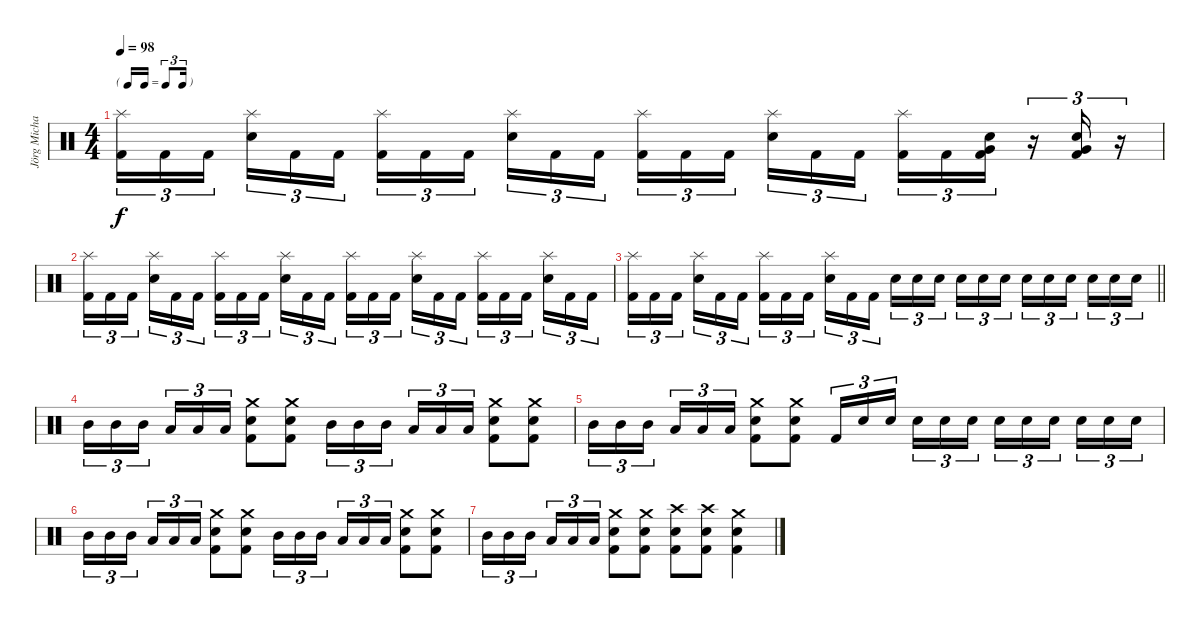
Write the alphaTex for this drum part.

\track ("Jörg Michael" "Jörg Micha") {instrument percussion}
\staff {score}
\articulation defaults
\ts (4 4)
\tf triplet16th
\tempo 98
\clef neutral
\ks c
("Splash (hit)" "Kick (hit) 2").16{tu (3 2) dy f} "Kick (hit) 2".16{tu (3 2)} "Kick (hit) 2".16{tu (3 2) beam splitsecondary} ("Splash (hit)" "Snare (hit) 2").16{tu (3 2)} "Kick (hit) 2".16{tu (3 2)} "Kick (hit) 2".16{tu (3 2)} ("Splash (hit)" "Kick (hit) 2").16{tu (3 2)} "Kick (hit) 2".16{tu (3 2)} "Kick (hit) 2".16{tu (3 2) beam splitsecondary} ("Splash (hit)" "Snare (hit) 2").16{tu (3 2)} "Kick (hit) 2".16{tu (3 2)} "Kick (hit) 2".16{tu (3 2)} ("Splash (hit)" "Kick (hit) 2").16{tu (3 2)} "Kick (hit) 2".16{tu (3 2)} "Kick (hit) 2".16{tu (3 2) beam splitsecondary} ("Splash (hit)" "Snare (hit) 2").16{tu (3 2)} "Kick (hit) 2".16{tu (3 2)} "Kick (hit) 2".16{tu (3 2)} ("Splash (hit)" "Kick (hit) 2").16{tu (3 2)} "Kick (hit) 2".16{tu (3 2)} ("Very Low Tom (hit)" "Snare (hit) 2" "Kick (hit) 2").16{tu (3 2)} r.16{tu (3 2)} ("Very Low Tom (hit)" "Snare (hit) 2" "Kick (hit) 2").16{tu (3 2)} r.16{tu (3 2)} |
("Splash (hit)" "Kick (hit) 2").16{tu (3 2)} "Kick (hit) 2".16{tu (3 2)} "Kick (hit) 2".16{tu (3 2) beam splitsecondary} ("Splash (hit)" "Snare (hit) 2").16{tu (3 2)} "Kick (hit) 2".16{tu (3 2)} "Kick (hit) 2".16{tu (3 2)} ("Splash (hit)" "Kick (hit) 2").16{tu (3 2)} "Kick (hit) 2".16{tu (3 2)} "Kick (hit) 2".16{tu (3 2) beam splitsecondary} ("Splash (hit)" "Snare (hit) 2").16{tu (3 2)} "Kick (hit) 2".16{tu (3 2)} "Kick (hit) 2".16{tu (3 2)} ("Splash (hit)" "Kick (hit) 2").16{tu (3 2)} "Kick (hit) 2".16{tu (3 2)} "Kick (hit) 2".16{tu (3 2) beam splitsecondary} ("Splash (hit)" "Snare (hit) 2").16{tu (3 2)} "Kick (hit) 2".16{tu (3 2)} "Kick (hit) 2".16{tu (3 2)} ("Splash (hit)" "Kick (hit) 2").16{tu (3 2)} "Kick (hit) 2".16{tu (3 2)} "Kick (hit) 2".16{tu (3 2) beam splitsecondary} ("Splash (hit)" "Snare (hit) 2").16{tu (3 2)} "Kick (hit) 2".16{tu (3 2)} "Kick (hit) 2".16{tu (3 2)} |
\barLineRight lightlight
("Splash (hit)" "Kick (hit) 2").16{tu (3 2)} "Kick (hit) 2".16{tu (3 2)} "Kick (hit) 2".16{tu (3 2) beam splitsecondary} ("Splash (hit)" "Snare (hit) 2").16{tu (3 2)} "Kick (hit) 2".16{tu (3 2)} "Kick (hit) 2".16{tu (3 2)} ("Splash (hit)" "Kick (hit) 2").16{tu (3 2)} "Kick (hit) 2".16{tu (3 2)} "Kick (hit) 2".16{tu (3 2) beam splitsecondary} ("Splash (hit)" "Snare (hit) 2").16{tu (3 2)} "Kick (hit) 2".16{tu (3 2)} "Kick (hit) 2".16{tu (3 2)} "Snare (hit) 2".16{tu (3 2)} "Snare (hit) 2".16{tu (3 2)} "Snare (hit) 2".16{tu (3 2) beam splitsecondary} "Snare (hit) 2".16{tu (3 2)} "Snare (hit) 2".16{tu (3 2)} "Snare (hit) 2".16{tu (3 2)} "Snare (hit) 2".16{tu (3 2)} "Snare (hit) 2".16{tu (3 2)} "Snare (hit) 2".16{tu (3 2) beam splitsecondary} "Snare (hit) 2".16{tu (3 2)} "Snare (hit) 2".16{tu (3 2)} "Snare (hit) 2".16{tu (3 2)} |
"Mid Tom (hit)".16{tu (3 2)} "Mid Tom (hit)".16{tu (3 2)} "Mid Tom (hit)".16{tu (3 2) beam splitsecondary} "Low Tom (hit)".16{tu (3 2)} "Low Tom (hit)".16{tu (3 2)} "Low Tom (hit)".16{tu (3 2)} ("Crash medium (hit)" "Snare (hit) 2" "Kick (hit) 2").8 ("Crash medium (hit)" "Snare (hit) 2" "Kick (hit) 2").8 "Mid Tom (hit)".16{tu (3 2)} "Mid Tom (hit)".16{tu (3 2)} "Mid Tom (hit)".16{tu (3 2) beam splitsecondary} "Low Tom (hit)".16{tu (3 2)} "Low Tom (hit)".16{tu (3 2)} "Low Tom (hit)".16{tu (3 2)} ("Crash medium (hit)" "Snare (hit) 2" "Kick (hit) 2").8 ("Crash medium (hit)" "Snare (hit) 2" "Kick (hit) 2").8 |
"Mid Tom (hit)".16{tu (3 2)} "Mid Tom (hit)".16{tu (3 2)} "Mid Tom (hit)".16{tu (3 2) beam splitsecondary} "Low Tom (hit)".16{tu (3 2)} "Low Tom (hit)".16{tu (3 2)} "Low Tom (hit)".16{tu (3 2)} ("Crash medium (hit)" "Snare (hit) 2" "Kick (hit) 2").8 ("Crash medium (hit)" "Snare (hit) 2" "Kick (hit) 2").8 "Kick (hit) 2".16{tu (3 2)} "Snare (hit) 2".16{tu (3 2)} "Snare (hit) 2".16{tu (3 2) beam splitsecondary} "Snare (hit) 2".16{tu (3 2)} "Snare (hit) 2".16{tu (3 2)} "Snare (hit) 2".16{tu (3 2)} "Snare (hit) 2".16{tu (3 2)} "Snare (hit) 2".16{tu (3 2)} "Snare (hit) 2".16{tu (3 2) beam splitsecondary} "Snare (hit) 2".16{tu (3 2)} "Snare (hit) 2".16{tu (3 2)} "Snare (hit) 2".16{tu (3 2)} |
"Mid Tom (hit)".16{tu (3 2)} "Mid Tom (hit)".16{tu (3 2)} "Mid Tom (hit)".16{tu (3 2) beam splitsecondary} "Low Tom (hit)".16{tu (3 2)} "Low Tom (hit)".16{tu (3 2)} "Low Tom (hit)".16{tu (3 2)} ("Crash medium (hit)" "Snare (hit) 2" "Kick (hit) 2").8 ("Crash medium (hit)" "Snare (hit) 2" "Kick (hit) 2").8 "Mid Tom (hit)".16{tu (3 2)} "Mid Tom (hit)".16{tu (3 2)} "Mid Tom (hit)".16{tu (3 2) beam splitsecondary} "Low Tom (hit)".16{tu (3 2)} "Low Tom (hit)".16{tu (3 2)} "Low Tom (hit)".16{tu (3 2)} ("Crash medium (hit)" "Snare (hit) 2" "Kick (hit) 2").8 ("Crash medium (hit)" "Snare (hit) 2" "Kick (hit) 2").8 |
"Mid Tom (hit)".16{tu (3 2)} "Mid Tom (hit)".16{tu (3 2)} "Mid Tom (hit)".16{tu (3 2) beam splitsecondary} "Low Tom (hit)".16{tu (3 2)} "Low Tom (hit)".16{tu (3 2)} "Low Tom (hit)".16{tu (3 2)} ("Crash medium (hit)" "Snare (hit) 2" "Kick (hit) 2").8 ("Crash medium (hit)" "Snare (hit) 2" "Kick (hit) 2").8 ("Crash high (hit)" "Snare (hit) 2" "Kick (hit) 2").8 ("Crash high (hit)" "Snare (hit) 2" "Kick (hit) 2").8 ("Crash medium (hit)" "Snare (hit) 2" "Kick (hit) 2").4
